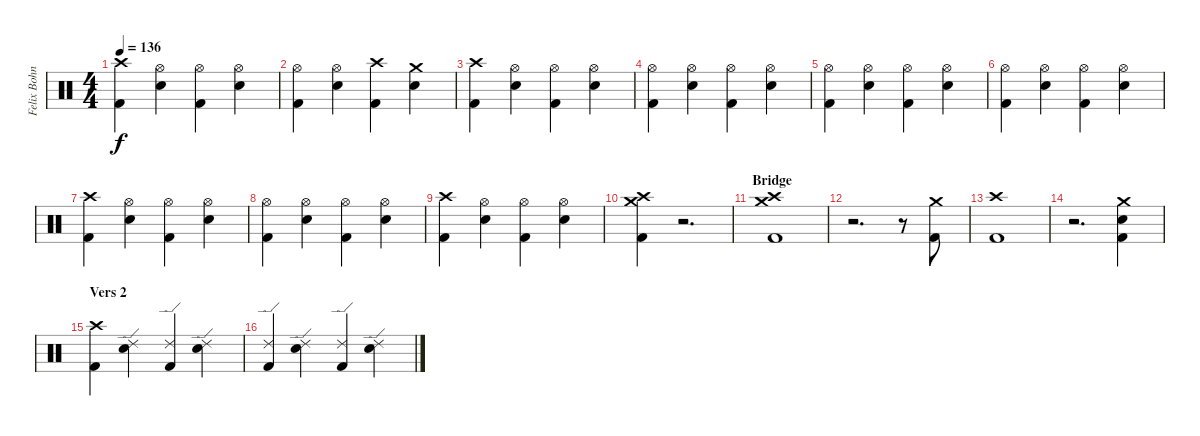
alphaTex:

\track ("Felix Bohnke" "Felix Bohn") {instrument percussion}
\staff {score}
\articulation defaults
\ts (4 4)
\tempo 136
\clef neutral
\ks c
("Crash high (hit)" "Kick (hit) 2").4{dy f} ("Hi-Hat (open)" "Snare (hit) 2").4 ("Hi-Hat (open)" "Kick (hit) 2").4 ("Hi-Hat (open)" "Snare (hit) 2").4 |
("Hi-Hat (open)" "Kick (hit) 2").4 ("Hi-Hat (open)" "Snare (hit) 2").4 ("Crash high (hit)" "Kick (hit) 2").4 ("Crash medium (hit)" "Snare (hit) 2").4 |
("Crash high (hit)" "Kick (hit) 2").4 ("Hi-Hat (open)" "Snare (hit) 2").4 ("Hi-Hat (open)" "Kick (hit) 2").4 ("Hi-Hat (open)" "Snare (hit) 2").4 |
("Hi-Hat (open)" "Kick (hit) 2").4 ("Hi-Hat (open)" "Snare (hit) 2").4 ("Hi-Hat (open)" "Kick (hit) 2").4 ("Hi-Hat (open)" "Snare (hit) 2").4 |
("Hi-Hat (open)" "Kick (hit) 2").4 ("Hi-Hat (open)" "Snare (hit) 2").4 ("Hi-Hat (open)" "Kick (hit) 2").4 ("Hi-Hat (open)" "Snare (hit) 2").4 |
("Hi-Hat (open)" "Kick (hit) 2").4 ("Hi-Hat (open)" "Snare (hit) 2").4 ("Hi-Hat (open)" "Kick (hit) 2").4 ("Hi-Hat (open)" "Snare (hit) 2").4 |
("Crash high (hit)" "Kick (hit) 2").4 ("Hi-Hat (open)" "Snare (hit) 2").4 ("Hi-Hat (open)" "Kick (hit) 2").4 ("Hi-Hat (open)" "Snare (hit) 2").4 |
("Hi-Hat (open)" "Kick (hit) 2").4 ("Hi-Hat (open)" "Snare (hit) 2").4 ("Hi-Hat (open)" "Kick (hit) 2").4 ("Hi-Hat (open)" "Snare (hit) 2").4 |
("Crash high (hit)" "Kick (hit) 2").4 ("Hi-Hat (open)" "Snare (hit) 2").4 ("Hi-Hat (open)" "Kick (hit) 2").4 ("Hi-Hat (open)" "Snare (hit) 2").4 |
("Crash high (hit)" "Crash medium (hit)" "Kick (hit) 2").4 r.2{d} |
\section ("" "Bridge")
("Crash high (hit)" "Crash medium (hit)" "Kick (hit) 2").1 |
r.2{d} r.8 ("Crash medium (hit)" "Kick (hit) 2").8 |
("Crash high (hit)" "Kick (hit) 2").1 |
r.2{d} ("Crash medium (hit)" "Snare (hit) 2" "Kick (hit) 2").4 |
\section ("" "Vers 2")
("Crash high (hit)" "Kick (hit) 2").4 ("Ride (edge) 2" "Snare (hit) 2").4 ("Ride (edge) 2" "Kick (hit) 2").4 ("Ride (edge) 2" "Snare (hit) 2").4 |
("Ride (edge) 2" "Kick (hit) 2").4 ("Ride (edge) 2" "Snare (hit) 2").4 ("Ride (edge) 2" "Kick (hit) 2").4 ("Ride (edge) 2" "Snare (hit) 2").4
